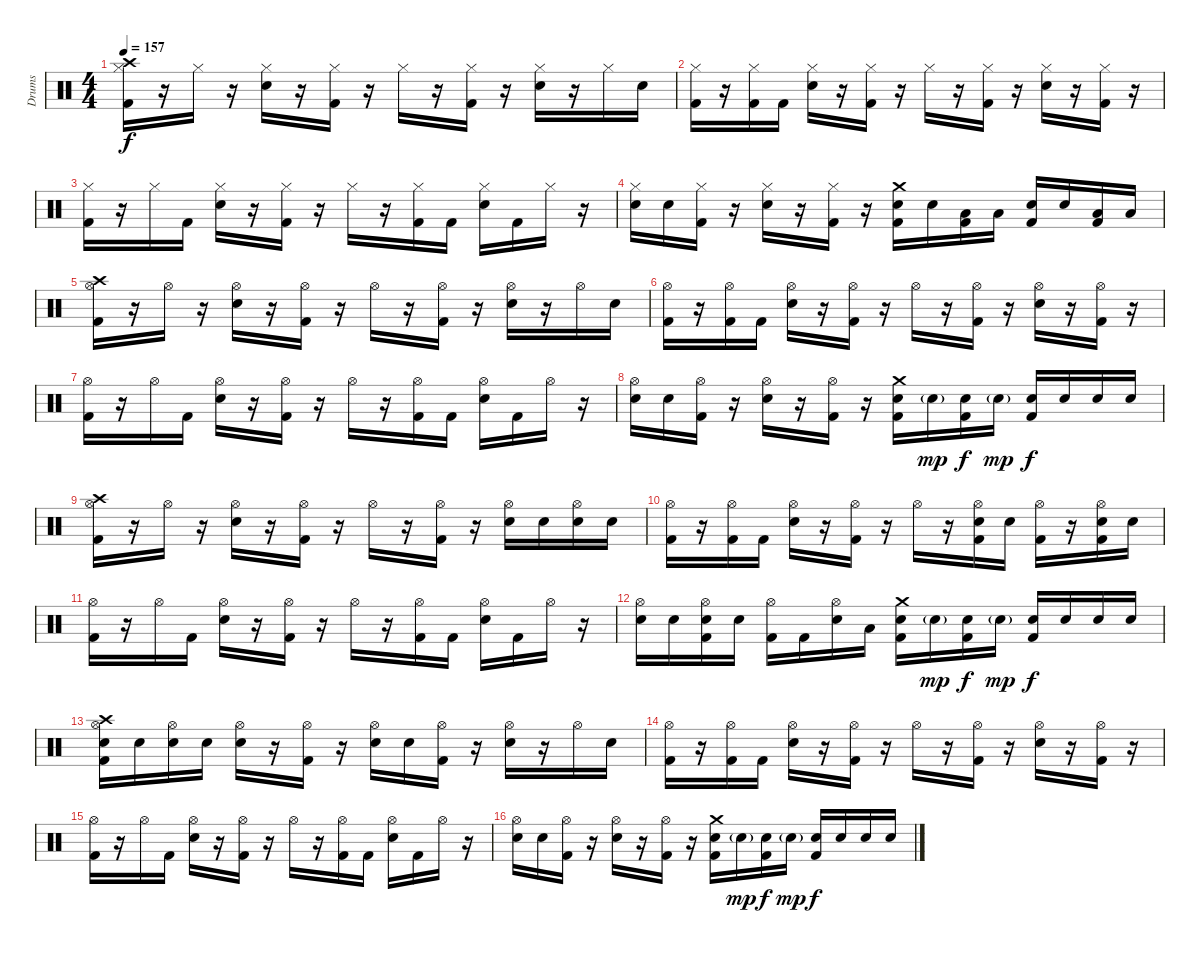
\track ("Drums" "Drums") {instrument percussion}
\staff {score}
\articulation defaults
\ts (4 4)
\tempo 157
\clef neutral
\ks c
("Hi-Hat (closed)" "Crash high (hit)" "Kick (hit) 2").16{dy f} r.16 "Hi-Hat (closed)".16 r.16 ("Hi-Hat (closed)" "Electric Snare (hit)").16 r.16 ("Hi-Hat (closed)" "Kick (hit) 2").16 r.16 "Hi-Hat (closed)".16 r.16 ("Hi-Hat (closed)" "Kick (hit) 2").16 r.16 ("Hi-Hat (closed)" "Electric Snare (hit)").16 r.16 "Hi-Hat (closed)".16 "Electric Snare (hit)".16 |
("Hi-Hat (closed)" "Kick (hit) 2").16 r.16 ("Hi-Hat (closed)" "Kick (hit) 2").16 "Kick (hit) 2".16 ("Hi-Hat (closed)" "Electric Snare (hit)").16 r.16 ("Hi-Hat (closed)" "Kick (hit) 2").16 r.16 "Hi-Hat (closed)".16 r.16 ("Hi-Hat (closed)" "Kick (hit) 2").16 r.16 ("Hi-Hat (closed)" "Electric Snare (hit)").16 r.16 ("Hi-Hat (closed)" "Kick (hit) 2").16 r.16 |
("Hi-Hat (closed)" "Kick (hit) 2").16 r.16 "Hi-Hat (closed)".16 "Kick (hit) 2".16 ("Hi-Hat (closed)" "Electric Snare (hit)").16 r.16 ("Hi-Hat (closed)" "Kick (hit) 2").16 r.16 "Hi-Hat (closed)".16 r.16 ("Hi-Hat (closed)" "Kick (hit) 2").16 "Kick (hit) 2".16 ("Hi-Hat (closed)" "Electric Snare (hit)").16 "Kick (hit) 2".16 "Hi-Hat (closed)".16 r.16 |
("Hi-Hat (closed)" "Electric Snare (hit)").16 "Electric Snare (hit)".16 ("Hi-Hat (closed)" "Kick (hit) 2").16 r.16 ("Hi-Hat (closed)" "Electric Snare (hit)").16 r.16 ("Hi-Hat (closed)" "Kick (hit) 2").16 r.16 ("Crash medium (hit)" "Electric Snare (hit)" "Kick (hit) 2").16 "Electric Snare (hit)".16 ("Low Tom (hit)" "Kick (hit) 2").16 "Low Tom (hit)".16 ("Electric Snare (hit)" "Kick (hit) 2").16 "Electric Snare (hit)".16 ("Low Tom (hit)" "Kick (hit) 2").16 "Low Tom (hit)".16 |
("Hi-Hat (open)" "Crash high (hit)" "Kick (hit) 2").16 r.16 "Hi-Hat (open)".16 r.16 ("Hi-Hat (open)" "Electric Snare (hit)").16 r.16 ("Hi-Hat (open)" "Kick (hit) 2").16 r.16 "Hi-Hat (open)".16 r.16 ("Hi-Hat (open)" "Kick (hit) 2").16 r.16 ("Hi-Hat (open)" "Electric Snare (hit)").16 r.16 "Hi-Hat (open)".16 "Electric Snare (hit)".16 |
("Hi-Hat (open)" "Kick (hit) 2").16 r.16 ("Hi-Hat (open)" "Kick (hit) 2").16 "Kick (hit) 2".16 ("Hi-Hat (open)" "Electric Snare (hit)").16 r.16 ("Hi-Hat (open)" "Kick (hit) 2").16 r.16 "Hi-Hat (open)".16 r.16 ("Hi-Hat (open)" "Kick (hit) 2").16 r.16 ("Hi-Hat (open)" "Electric Snare (hit)").16 r.16 ("Hi-Hat (open)" "Kick (hit) 2").16 r.16 |
("Hi-Hat (open)" "Kick (hit) 2").16 r.16 "Hi-Hat (open)".16 "Kick (hit) 2".16 ("Hi-Hat (open)" "Electric Snare (hit)").16 r.16 ("Hi-Hat (open)" "Kick (hit) 2").16 r.16 "Hi-Hat (open)".16 r.16 ("Hi-Hat (open)" "Kick (hit) 2").16 "Kick (hit) 2".16 ("Hi-Hat (open)" "Electric Snare (hit)").16 "Kick (hit) 2".16 "Hi-Hat (open)".16 r.16 |
("Hi-Hat (open)" "Electric Snare (hit)").16 "Electric Snare (hit)".16 ("Hi-Hat (open)" "Kick (hit) 2").16 r.16 ("Hi-Hat (open)" "Electric Snare (hit)").16 r.16 ("Hi-Hat (open)" "Kick (hit) 2").16 r.16 ("Crash medium (hit)" "Electric Snare (hit)" "Kick (hit) 2").16 "Electric Snare (hit)"{g}.16{dy mp} ("Electric Snare (hit)" "Kick (hit) 2").16{dy f} "Electric Snare (hit)"{g}.16{dy mp} ("Electric Snare (hit)" "Kick (hit) 2").16{dy f} "Electric Snare (hit)".16 "Electric Snare (hit)".16 "Electric Snare (hit)".16 |
("Hi-Hat (open)" "Crash high (hit)" "Kick (hit) 2").16 r.16 "Hi-Hat (open)".16 r.16 ("Hi-Hat (open)" "Electric Snare (hit)").16 r.16 ("Hi-Hat (open)" "Kick (hit) 2").16 r.16 "Hi-Hat (open)".16 r.16 ("Hi-Hat (open)" "Kick (hit) 2").16 r.16 ("Hi-Hat (open)" "Electric Snare (hit)").16 "Electric Snare (hit)".16 ("Hi-Hat (open)" "Electric Snare (hit)").16 "Electric Snare (hit)".16 |
("Hi-Hat (open)" "Kick (hit) 2").16 r.16 ("Hi-Hat (open)" "Kick (hit) 2").16 "Kick (hit) 2".16 ("Hi-Hat (open)" "Electric Snare (hit)").16 r.16 ("Hi-Hat (open)" "Kick (hit) 2").16 r.16 "Hi-Hat (open)".16 r.16 ("Hi-Hat (open)" "Electric Snare (hit)" "Kick (hit) 2").16 "Electric Snare (hit)".16 ("Hi-Hat (open)" "Kick (hit) 2").16 r.16 ("Hi-Hat (open)" "Electric Snare (hit)" "Kick (hit) 2").16 "Electric Snare (hit)".16 |
("Hi-Hat (open)" "Kick (hit) 2").16 r.16 "Hi-Hat (open)".16 "Kick (hit) 2".16 ("Hi-Hat (open)" "Electric Snare (hit)").16 r.16 ("Hi-Hat (open)" "Kick (hit) 2").16 r.16 "Hi-Hat (open)".16 r.16 ("Hi-Hat (open)" "Kick (hit) 2").16 "Kick (hit) 2".16 ("Hi-Hat (open)" "Electric Snare (hit)").16 "Kick (hit) 2".16 "Hi-Hat (open)".16 r.16 |
("Hi-Hat (open)" "Electric Snare (hit)").16 "Electric Snare (hit)".16 ("Hi-Hat (open)" "Electric Snare (hit)" "Kick (hit) 2").16 "Electric Snare (hit)".16 ("Hi-Hat (open)" "Kick (hit) 2").16 "Kick (hit) 2".16 ("Hi-Hat (open)" "Electric Snare (hit)").16 "Low Tom (hit)".16 ("Crash medium (hit)" "Electric Snare (hit)" "Kick (hit) 2").16 "Electric Snare (hit)"{g}.16{dy mp} ("Electric Snare (hit)" "Kick (hit) 2").16{dy f} "Electric Snare (hit)"{g}.16{dy mp} ("Electric Snare (hit)" "Kick (hit) 2").16{dy f} "Electric Snare (hit)".16 "Electric Snare (hit)".16 "Electric Snare (hit)".16 |
("Hi-Hat (open)" "Crash high (hit)" "Electric Snare (hit)" "Kick (hit) 2").16 "Electric Snare (hit)".16 ("Hi-Hat (open)" "Electric Snare (hit)").16 "Electric Snare (hit)".16 ("Hi-Hat (open)" "Electric Snare (hit)").16 r.16 ("Hi-Hat (open)" "Kick (hit) 2").16 r.16 ("Hi-Hat (open)" "Electric Snare (hit)").16 "Electric Snare (hit)".16 ("Hi-Hat (open)" "Kick (hit) 2").16 r.16 ("Hi-Hat (open)" "Electric Snare (hit)").16 r.16 "Hi-Hat (open)".16 "Electric Snare (hit)".16 |
("Hi-Hat (open)" "Kick (hit) 2").16 r.16 ("Hi-Hat (open)" "Kick (hit) 2").16 "Kick (hit) 2".16 ("Hi-Hat (open)" "Electric Snare (hit)").16 r.16 ("Hi-Hat (open)" "Kick (hit) 2").16 r.16 "Hi-Hat (open)".16 r.16 ("Hi-Hat (open)" "Kick (hit) 2").16 r.16 ("Hi-Hat (open)" "Electric Snare (hit)").16 r.16 ("Hi-Hat (open)" "Kick (hit) 2").16 r.16 |
("Hi-Hat (open)" "Kick (hit) 2").16 r.16 "Hi-Hat (open)".16 "Kick (hit) 2".16 ("Hi-Hat (open)" "Electric Snare (hit)").16 r.16 ("Hi-Hat (open)" "Kick (hit) 2").16 r.16 "Hi-Hat (open)".16 r.16 ("Hi-Hat (open)" "Kick (hit) 2").16 "Kick (hit) 2".16 ("Hi-Hat (open)" "Electric Snare (hit)").16 "Kick (hit) 2".16 "Hi-Hat (open)".16 r.16 |
("Hi-Hat (open)" "Electric Snare (hit)").16 "Electric Snare (hit)".16 ("Hi-Hat (open)" "Kick (hit) 2").16 r.16 ("Hi-Hat (open)" "Electric Snare (hit)").16 r.16 ("Hi-Hat (open)" "Kick (hit) 2").16 r.16 ("Crash medium (hit)" "Electric Snare (hit)" "Kick (hit) 2").16 "Electric Snare (hit)"{g}.16{dy mp} ("Electric Snare (hit)" "Kick (hit) 2").16{dy f} "Electric Snare (hit)"{g}.16{dy mp} ("Electric Snare (hit)" "Kick (hit) 2").16{dy f} "Electric Snare (hit)".16 "Electric Snare (hit)".16 "Electric Snare (hit)".16
